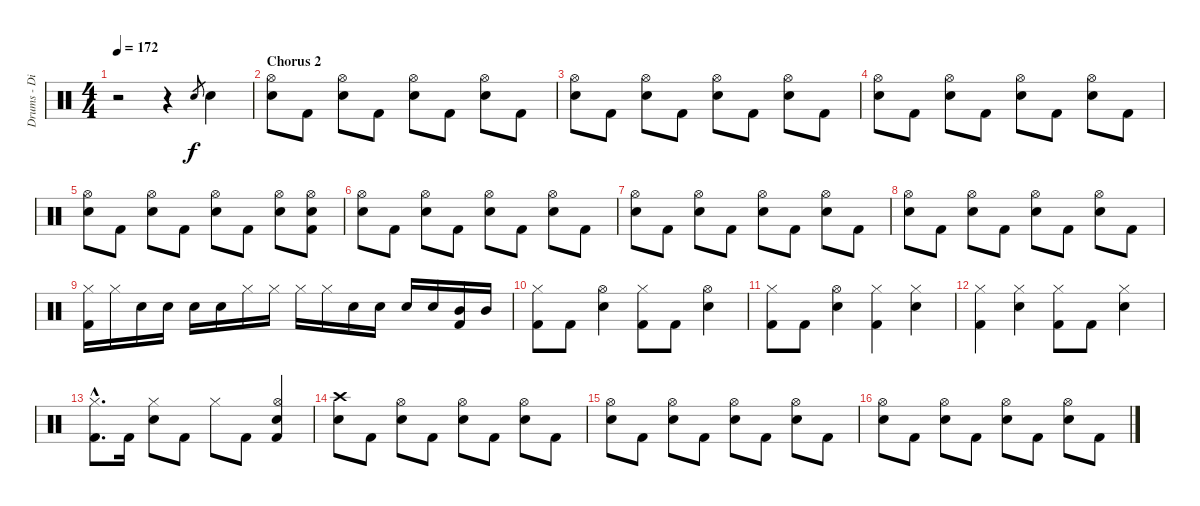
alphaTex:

\track ("Drums - Dino Campanella" "Drums - Di") {instrument percussion}
\staff {score}
\articulation defaults
\ts (4 4)
\tempo 172
\clef neutral
\ks c
r.2{dy f} r.4 "Electric Snare (hit)".8{gr} "Electric Snare (hit)".4 |
\section ("" "Chorus 2")
("Hi-Hat (open)" "Electric Snare (hit)").8 "Kick (hit) 2".8 ("Hi-Hat (open)" "Electric Snare (hit)").8 "Kick (hit) 2".8 ("Hi-Hat (open)" "Electric Snare (hit)").8 "Kick (hit) 2".8 ("Hi-Hat (open)" "Electric Snare (hit)").8 "Kick (hit) 2".8 |
("Hi-Hat (open)" "Electric Snare (hit)").8 "Kick (hit) 2".8 ("Hi-Hat (open)" "Electric Snare (hit)").8 "Kick (hit) 2".8 ("Hi-Hat (open)" "Electric Snare (hit)").8 "Kick (hit) 2".8 ("Hi-Hat (open)" "Electric Snare (hit)").8 "Kick (hit) 2".8 |
("Hi-Hat (open)" "Electric Snare (hit)").8 "Kick (hit) 2".8 ("Hi-Hat (open)" "Electric Snare (hit)").8 "Kick (hit) 2".8 ("Hi-Hat (open)" "Electric Snare (hit)").8 "Kick (hit) 2".8 ("Hi-Hat (open)" "Electric Snare (hit)").8 "Kick (hit) 2".8 |
("Hi-Hat (open)" "Electric Snare (hit)").8 "Kick (hit) 2".8 ("Hi-Hat (open)" "Electric Snare (hit)").8 "Kick (hit) 2".8 ("Hi-Hat (open)" "Electric Snare (hit)").8 "Kick (hit) 2".8 ("Hi-Hat (open)" "Electric Snare (hit)").8 ("Hi-Hat (open)" "Electric Snare (hit)" "Kick (hit) 2").8 |
("Hi-Hat (open)" "Electric Snare (hit)").8 "Kick (hit) 2".8 ("Hi-Hat (open)" "Electric Snare (hit)").8 "Kick (hit) 2".8 ("Hi-Hat (open)" "Electric Snare (hit)").8 "Kick (hit) 2".8 ("Hi-Hat (open)" "Electric Snare (hit)").8 "Kick (hit) 2".8 |
("Hi-Hat (open)" "Electric Snare (hit)").8 "Kick (hit) 2".8 ("Hi-Hat (open)" "Electric Snare (hit)").8 "Kick (hit) 2".8 ("Hi-Hat (open)" "Electric Snare (hit)").8 "Kick (hit) 2".8 ("Hi-Hat (open)" "Electric Snare (hit)").8 "Kick (hit) 2".8 |
("Hi-Hat (open)" "Electric Snare (hit)").8 "Kick (hit) 2".8 ("Hi-Hat (open)" "Electric Snare (hit)").8 "Kick (hit) 2".8 ("Hi-Hat (open)" "Electric Snare (hit)").8 "Kick (hit) 2".8 ("Hi-Hat (open)" "Electric Snare (hit)").8 "Kick (hit) 2".8 |
("Hi-Hat (closed)" "Kick (hit) 2").16 "Hi-Hat (closed)".16 "Electric Snare (hit)".16 "Electric Snare (hit)".16 "Electric Snare (hit)".16 "Electric Snare (hit)".16 "Hi-Hat (closed)".16 "Hi-Hat (closed)".16 "Hi-Hat (closed)".16 "Hi-Hat (closed)".16 "Electric Snare (hit)".16 "Electric Snare (hit)".16 "Electric Snare (hit)".16 "Electric Snare (hit)".16 ("Mid Tom (hit)" "Kick (hit) 2").16 "Mid Tom (hit)".16 |
("Hi-Hat (closed)" "Kick (hit) 2").8 "Kick (hit) 2".8 ("Hi-Hat (open)" "Electric Snare (hit)").4 ("Hi-Hat (closed)" "Kick (hit) 2").8 "Kick (hit) 2".8 ("Hi-Hat (open)" "Electric Snare (hit)").4 |
("Hi-Hat (closed)" "Kick (hit) 2").8 "Kick (hit) 2".8 ("Hi-Hat (open)" "Electric Snare (hit)").4 ("Hi-Hat (closed)" "Kick (hit) 2").4 ("Hi-Hat (closed)" "Electric Snare (hit)").4 |
("Hi-Hat (closed)" "Kick (hit) 2").4 ("Hi-Hat (closed)" "Electric Snare (hit)").4 ("Hi-Hat (closed)" "Kick (hit) 2").8 "Kick (hit) 2".8 ("Hi-Hat (closed)" "Electric Snare (hit)").4 |
("Hi-Hat (closed)"{hac} "Kick (hit) 2"{hac}).8{d} "Kick (hit) 2".16 ("Hi-Hat (closed)" "Electric Snare (hit)").8 "Kick (hit) 2".8 "Hi-Hat (closed)".8 "Kick (hit) 2".8 ("Hi-Hat (open)" "Electric Snare (hit)" "Kick (hit) 2").4 |
("Crash high (hit)" "Electric Snare (hit)").8 "Kick (hit) 2".8 ("Hi-Hat (open)" "Electric Snare (hit)").8 "Kick (hit) 2".8 ("Hi-Hat (open)" "Electric Snare (hit)").8 "Kick (hit) 2".8 ("Hi-Hat (open)" "Electric Snare (hit)").8 "Kick (hit) 2".8 |
("Hi-Hat (open)" "Electric Snare (hit)").8 "Kick (hit) 2".8 ("Hi-Hat (open)" "Electric Snare (hit)").8 "Kick (hit) 2".8 ("Hi-Hat (open)" "Electric Snare (hit)").8 "Kick (hit) 2".8 ("Hi-Hat (open)" "Electric Snare (hit)").8 "Kick (hit) 2".8 |
("Hi-Hat (open)" "Electric Snare (hit)").8 "Kick (hit) 2".8 ("Hi-Hat (open)" "Electric Snare (hit)").8 "Kick (hit) 2".8 ("Hi-Hat (open)" "Electric Snare (hit)").8 "Kick (hit) 2".8 ("Hi-Hat (open)" "Electric Snare (hit)").8 "Kick (hit) 2".8
